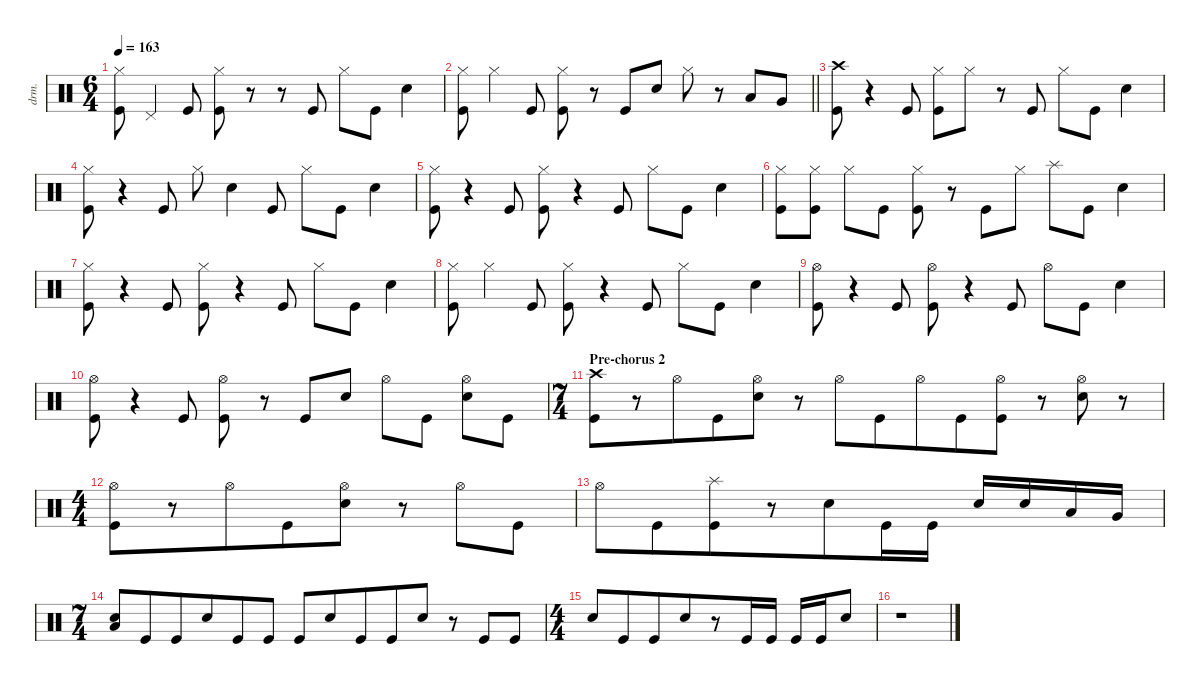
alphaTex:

\defaultSystemsLayout 4
\hideDynamics
\bracketExtendMode nobrackets
\otherSystemsTrackNameOrientation horizontal
\track ("Drums" "drm.") {instrument percussion}
\staff {score}
\articulation defaults
\ts (6 4)
\tempo 163
\clef neutral
\ks c
("Hi-Hat (closed)" "Kick (hit)").8{dy f} "Pedal Hi-Hat (hit)".4 "Kick (hit)".8 ("Hi-Hat (closed)" "Kick (hit)").8 r.8 r.8 "Kick (hit)".8 "Hi-Hat (closed)".8 "Kick (hit)".8 "Snare (hit) 2".4 |
\barLineRight lightlight
("Hi-Hat (closed)" "Kick (hit)").8 "Hi-Hat (closed)".4 "Kick (hit)".8 ("Hi-Hat (closed)" "Kick (hit)").8 r.8 "Kick (hit)".8 "Snare (hit) 2".8 "Hi-Hat (closed)".8 r.8 "Low Tom (hit)".8 "Very Low Tom (hit)".8 |
\section ("" "")
("Crash high (hit)" "Kick (hit)").8 r.4 "Kick (hit)".8 ("Hi-Hat (closed)" "Kick (hit)").8 "Hi-Hat (closed)".8 r.8 "Kick (hit)".8 "Hi-Hat (closed)".8 "Kick (hit)".8 "Snare (hit) 2".4 |
("Hi-Hat (closed)" "Kick (hit)").8 r.4 "Kick (hit)".8 "Hi-Hat (closed)".8 "Snare (hit) 2".4 "Kick (hit)".8 "Hi-Hat (closed)".8 "Kick (hit)".8 "Snare (hit) 2".4 |
("Hi-Hat (closed)" "Kick (hit)").8 r.4 "Kick (hit)".8 ("Hi-Hat (closed)" "Kick (hit)").8 r.4 "Kick (hit)".8 "Hi-Hat (closed)".8 "Kick (hit)".8 "Snare (hit) 2".4 |
("Hi-Hat (closed)" "Kick (hit)").8 ("Hi-Hat (closed)" "Kick (hit)").8 "Hi-Hat (closed)".8 "Kick (hit)".8 ("Hi-Hat (closed)" "Kick (hit)").8 r.8 "Kick (hit)".8 "Hi-Hat (closed)".8 "Splash (hit)".8 "Kick (hit)".8 "Snare (hit) 2".4 |
("Hi-Hat (closed)" "Kick (hit)").8 r.4 "Kick (hit)".8 ("Hi-Hat (closed)" "Kick (hit)").8 r.4 "Kick (hit)".8 "Hi-Hat (closed)".8 "Kick (hit)".8 "Snare (hit) 2".4 |
("Hi-Hat (closed)" "Kick (hit)").8 "Hi-Hat (closed)".4 "Kick (hit)".8 ("Hi-Hat (closed)" "Kick (hit)").8 r.4 "Kick (hit)".8 "Hi-Hat (closed)".8 "Kick (hit)".8 "Snare (hit) 2".4 |
("Hi-Hat (open)" "Kick (hit)").8 r.4 "Kick (hit)".8 ("Hi-Hat (open)" "Kick (hit)").8 r.4 "Kick (hit)".8 "Hi-Hat (open)".8 "Kick (hit)".8 "Snare (hit) 2".4 |
("Hi-Hat (open)" "Kick (hit)").8 r.4 "Kick (hit)".8 ("Hi-Hat (open)" "Kick (hit)").8 r.8 "Kick (hit)".8 "Snare (hit) 2".8 "Hi-Hat (open)".8 "Kick (hit)".8 ("Hi-Hat (open)" "Snare (hit) 2").8 "Kick (hit)".8 |
\ts (7 4)
\beaming (8 6 6 2)
\section ("" "Pre-chorus 2")
("Crash high (hit)" "Kick (hit)").8 r.8 "Hi-Hat (open)".8 "Kick (hit)".8 ("Hi-Hat (open)" "Snare (hit) 2").8 r.8 "Hi-Hat (open)".8 "Kick (hit)".8 "Hi-Hat (open)".8 "Kick (hit)".8 ("Hi-Hat (open)" "Kick (hit)").8 r.8 ("Hi-Hat (open)" "Snare (hit) 2").8 r.8 |
\ts (4 4)
\beaming (8 6 6)
("Hi-Hat (open)" "Kick (hit)").8 r.8 "Hi-Hat (open)".8 "Kick (hit)".8 ("Hi-Hat (open)" "Snare (hit) 2").8 r.8 "Hi-Hat (open)".8 "Kick (hit)".8 |
"Hi-Hat (open)".8 "Kick (hit)".8 ("Splash (hit)" "Kick (hit)").8 r.8 "Snare (hit) 2".8 "Kick (hit)".16 "Kick (hit)".16 "Snare (hit) 2".16 "Snare (hit) 2".16 "Low Tom (hit)".16 "Very Low Tom (hit)".16 |
\ts (7 4)
\beaming (8 6 6 2)
("Snare (hit) 2" "Low Floor Tom (hit)").8 "Kick (hit)".8 "Kick (hit)".8 "Snare (hit) 2".8 "Kick (hit)".8 "Kick (hit)".8 "Kick (hit)".8 "Snare (hit) 2".8 "Kick (hit)".8 "Kick (hit)".8 "Snare (hit) 2".8 r.8 "Kick (hit)".8 "Kick (hit)".8 |
\ts (4 4)
\beaming (8 6 6)
"Snare (hit) 2".8 "Kick (hit)".8 "Kick (hit)".8 "Snare (hit) 2".8 r.8 "Kick (hit)".16 "Kick (hit)".16 "Kick (hit)".16 "Kick (hit)".16 "Snare (hit) 2".8 |
r.1
